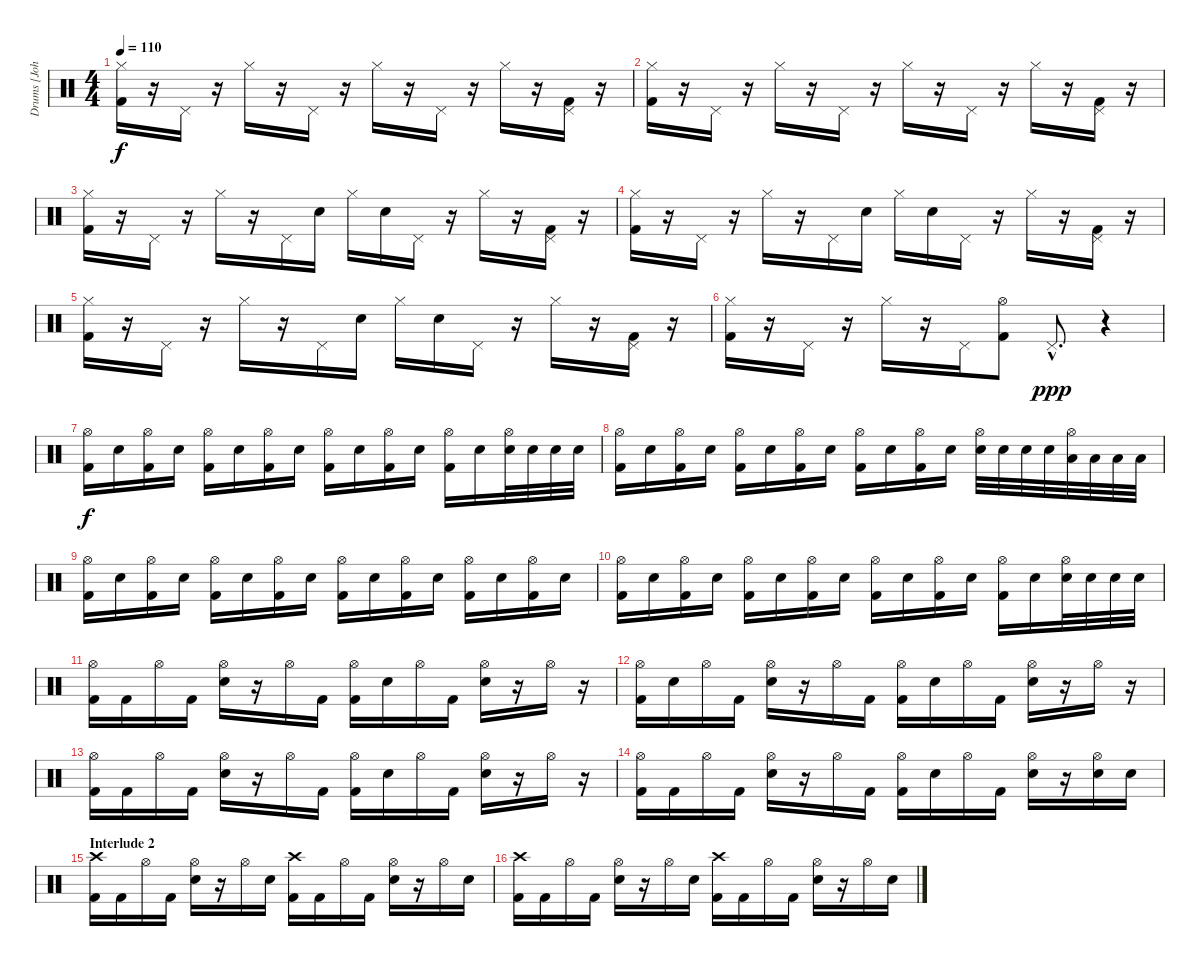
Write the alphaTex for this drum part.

\track ("Drums [John Otto]" "Drums [Joh") {instrument percussion}
\staff {score}
\articulation defaults
\ts (4 4)
\tempo 110
\clef neutral
\ks c
("Hi-Hat (closed)" "Kick (hit) 2").16{dy f} r.16 "Pedal Hi-Hat (hit)".16 r.16 "Hi-Hat (closed)".16 r.16 "Pedal Hi-Hat (hit)".16 r.16 "Hi-Hat (closed)".16 r.16 "Pedal Hi-Hat (hit)".16 r.16 "Hi-Hat (closed)".16 r.16 ("Pedal Hi-Hat (hit)" "Kick (hit) 2").16 r.16 |
("Hi-Hat (closed)" "Kick (hit) 2").16 r.16 "Pedal Hi-Hat (hit)".16 r.16 "Hi-Hat (closed)".16 r.16 "Pedal Hi-Hat (hit)".16 r.16 "Hi-Hat (closed)".16 r.16 "Pedal Hi-Hat (hit)".16 r.16 "Hi-Hat (closed)".16 r.16 ("Pedal Hi-Hat (hit)" "Kick (hit) 2").16 r.16 |
("Hi-Hat (closed)" "Kick (hit) 2").16 r.16 "Pedal Hi-Hat (hit)".16 r.16 "Hi-Hat (closed)".16 r.16 "Pedal Hi-Hat (hit)".16 "Electric Snare (hit)".16 "Hi-Hat (closed)".16 "Electric Snare (hit)".16 "Pedal Hi-Hat (hit)".16 r.16 "Hi-Hat (closed)".16 r.16 ("Pedal Hi-Hat (hit)" "Kick (hit) 2").16 r.16 |
("Hi-Hat (closed)" "Kick (hit) 2").16 r.16 "Pedal Hi-Hat (hit)".16 r.16 "Hi-Hat (closed)".16 r.16 "Pedal Hi-Hat (hit)".16 "Electric Snare (hit)".16 "Hi-Hat (closed)".16 "Electric Snare (hit)".16 "Pedal Hi-Hat (hit)".16 r.16 "Hi-Hat (closed)".16 r.16 ("Pedal Hi-Hat (hit)" "Kick (hit) 2").16 r.16 |
("Hi-Hat (closed)" "Kick (hit) 2").16 r.16 "Pedal Hi-Hat (hit)".16 r.16 "Hi-Hat (closed)".16 r.16 "Pedal Hi-Hat (hit)".16 "Electric Snare (hit)".16 "Hi-Hat (closed)".16 "Electric Snare (hit)".16 "Pedal Hi-Hat (hit)".16 r.16 "Hi-Hat (closed)".16 r.16 ("Pedal Hi-Hat (hit)" "Kick (hit) 2").16 r.16 |
("Hi-Hat (closed)" "Kick (hit) 2").16 r.16 "Pedal Hi-Hat (hit)".16 r.16 "Hi-Hat (closed)".16 r.16 "Pedal Hi-Hat (hit)".16 ("Hi-Hat (open)" "Kick (hit) 2").8 "Pedal Hi-Hat (hit)"{hac}.8{d dy ppp} r.4 |
("Hi-Hat (open)" "Kick (hit) 2").16{dy f} "Electric Snare (hit)".16 ("Hi-Hat (open)" "Kick (hit) 2").16 "Electric Snare (hit)".16 ("Hi-Hat (open)" "Kick (hit) 2").16 "Electric Snare (hit)".16 ("Hi-Hat (open)" "Kick (hit) 2").16 "Electric Snare (hit)".16 ("Hi-Hat (open)" "Kick (hit) 2").16 "Electric Snare (hit)".16 ("Hi-Hat (open)" "Kick (hit) 2").16 "Electric Snare (hit)".16 ("Hi-Hat (open)" "Kick (hit) 2").16 "Electric Snare (hit)".16 ("Hi-Hat (open)" "Electric Snare (hit)").32 "Electric Snare (hit)".32 "Electric Snare (hit)".32 "Electric Snare (hit)".32 |
("Hi-Hat (open)" "Kick (hit) 2").16 "Electric Snare (hit)".16 ("Hi-Hat (open)" "Kick (hit) 2").16 "Electric Snare (hit)".16 ("Hi-Hat (open)" "Kick (hit) 2").16 "Electric Snare (hit)".16 ("Hi-Hat (open)" "Kick (hit) 2").16 "Electric Snare (hit)".16 ("Hi-Hat (open)" "Kick (hit) 2").16 "Electric Snare (hit)".16 ("Hi-Hat (open)" "Kick (hit) 2").16 "Electric Snare (hit)".16 ("Hi-Hat (open)" "Electric Snare (hit)").32 "Electric Snare (hit)".32 "Electric Snare (hit)".32 "Electric Snare (hit)".32 ("Hi-Hat (open)" "Low Tom (hit)").32 "Low Tom (hit)".32 "Low Tom (hit)".32 "Low Tom (hit)".32 |
("Hi-Hat (open)" "Kick (hit) 2").16 "Electric Snare (hit)".16 ("Hi-Hat (open)" "Kick (hit) 2").16 "Electric Snare (hit)".16 ("Hi-Hat (open)" "Kick (hit) 2").16 "Electric Snare (hit)".16 ("Hi-Hat (open)" "Kick (hit) 2").16 "Electric Snare (hit)".16 ("Hi-Hat (open)" "Kick (hit) 2").16 "Electric Snare (hit)".16 ("Hi-Hat (open)" "Kick (hit) 2").16 "Electric Snare (hit)".16 ("Hi-Hat (open)" "Kick (hit) 2").16 "Electric Snare (hit)".16 ("Hi-Hat (open)" "Kick (hit) 2").16 "Electric Snare (hit)".16 |
("Hi-Hat (open)" "Kick (hit) 2").16 "Electric Snare (hit)".16 ("Hi-Hat (open)" "Kick (hit) 2").16 "Electric Snare (hit)".16 ("Hi-Hat (open)" "Kick (hit) 2").16 "Electric Snare (hit)".16 ("Hi-Hat (open)" "Kick (hit) 2").16 "Electric Snare (hit)".16 ("Hi-Hat (open)" "Kick (hit) 2").16 "Electric Snare (hit)".16 ("Hi-Hat (open)" "Kick (hit) 2").16 "Electric Snare (hit)".16 ("Hi-Hat (open)" "Kick (hit) 2").16 "Electric Snare (hit)".16 ("Hi-Hat (open)" "Electric Snare (hit)").32 "Electric Snare (hit)".32 "Electric Snare (hit)".32 "Electric Snare (hit)".32 |
("Hi-Hat (open)" "Kick (hit) 2").16 "Kick (hit) 2".16 "Hi-Hat (open)".16 "Kick (hit) 2".16 ("Hi-Hat (open)" "Electric Snare (hit)").16 r.16 "Hi-Hat (open)".16 "Kick (hit) 2".16 ("Hi-Hat (open)" "Kick (hit) 2").16 "Electric Snare (hit)".16 "Hi-Hat (open)".16 "Kick (hit) 2".16 ("Hi-Hat (open)" "Electric Snare (hit)").16 r.16 "Hi-Hat (open)".16 r.16 |
("Hi-Hat (open)" "Kick (hit) 2").16 "Electric Snare (hit)".16 "Hi-Hat (open)".16 "Kick (hit) 2".16 ("Hi-Hat (open)" "Electric Snare (hit)").16 r.16 "Hi-Hat (open)".16 "Kick (hit) 2".16 ("Hi-Hat (open)" "Kick (hit) 2").16 "Electric Snare (hit)".16 "Hi-Hat (open)".16 "Kick (hit) 2".16 ("Hi-Hat (open)" "Electric Snare (hit)").16 r.16 "Hi-Hat (open)".16 r.16 |
("Hi-Hat (open)" "Kick (hit) 2").16 "Kick (hit) 2".16 "Hi-Hat (open)".16 "Kick (hit) 2".16 ("Hi-Hat (open)" "Electric Snare (hit)").16 r.16 "Hi-Hat (open)".16 "Kick (hit) 2".16 ("Hi-Hat (open)" "Kick (hit) 2").16 "Electric Snare (hit)".16 "Hi-Hat (open)".16 "Kick (hit) 2".16 ("Hi-Hat (open)" "Electric Snare (hit)").16 r.16 "Hi-Hat (open)".16 r.16 |
("Hi-Hat (open)" "Kick (hit) 2").16 "Kick (hit) 2".16 "Hi-Hat (open)".16 "Kick (hit) 2".16 ("Hi-Hat (open)" "Electric Snare (hit)").16 r.16 "Hi-Hat (open)".16 "Kick (hit) 2".16 ("Hi-Hat (open)" "Kick (hit) 2").16 "Electric Snare (hit)".16 "Hi-Hat (open)".16 "Kick (hit) 2".16 ("Hi-Hat (open)" "Electric Snare (hit)").16 r.16 ("Hi-Hat (open)" "Electric Snare (hit)").16 "Electric Snare (hit)".16 |
\section ("" "Interlude 2")
("Crash high (hit)" "Kick (hit) 2").16 "Kick (hit) 2".16 "Hi-Hat (open)".16 "Kick (hit) 2".16 ("Hi-Hat (open)" "Electric Snare (hit)").16 r.16 "Hi-Hat (open)".16 "Electric Snare (hit)".16 ("Crash high (hit)" "Kick (hit) 2").16 "Kick (hit) 2".16 "Hi-Hat (open)".16 "Kick (hit) 2".16 ("Hi-Hat (open)" "Electric Snare (hit)").16 r.16 "Hi-Hat (open)".16 "Electric Snare (hit)".16 |
("Crash high (hit)" "Kick (hit) 2").16 "Kick (hit) 2".16 "Hi-Hat (open)".16 "Kick (hit) 2".16 ("Hi-Hat (open)" "Electric Snare (hit)").16 r.16 "Hi-Hat (open)".16 "Electric Snare (hit)".16 ("Crash high (hit)" "Kick (hit) 2").16 "Kick (hit) 2".16 "Hi-Hat (open)".16 "Kick (hit) 2".16 ("Hi-Hat (open)" "Electric Snare (hit)").16 r.16 "Hi-Hat (open)".16 "Electric Snare (hit)".16
